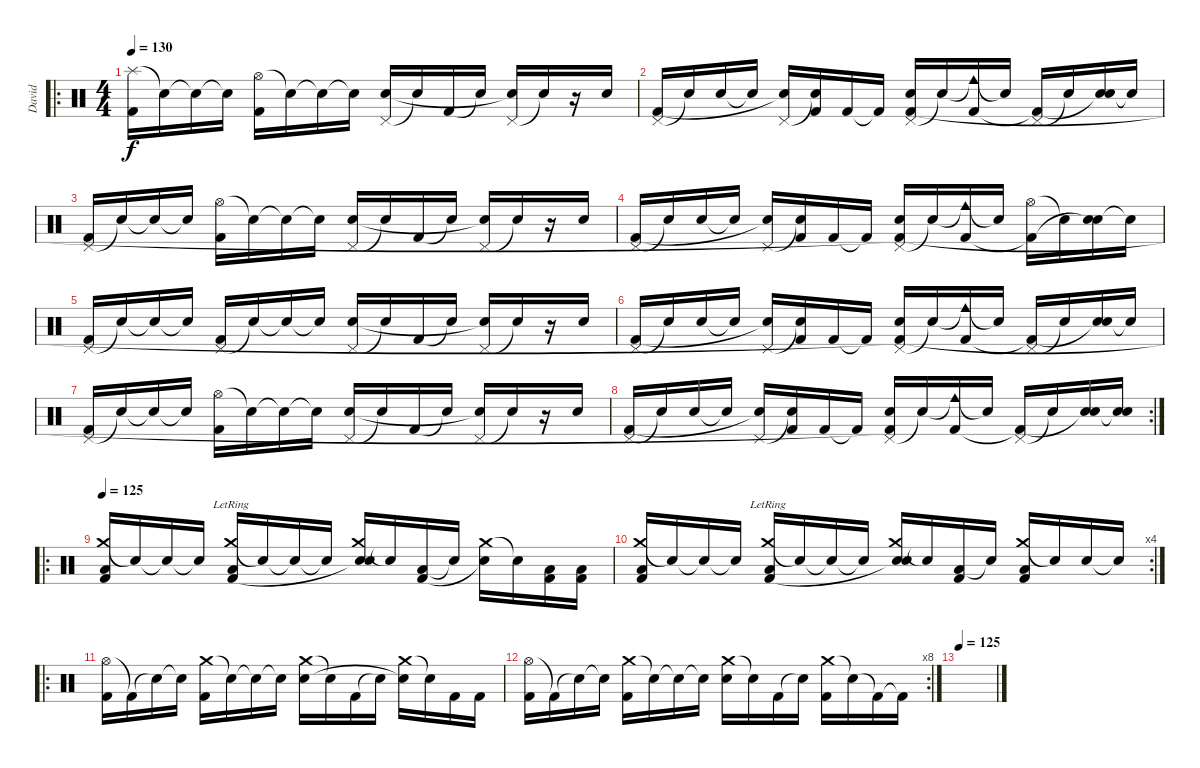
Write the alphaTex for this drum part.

\track ("David" "David") {instrument percussion}
\staff {score}
\articulation defaults
\ro
\ts (4 4)
\tempo 130
\clef neutral
\ks c
("Splash (hit)" "Kick (hit) 2").16{dy f} "Snare (hit)"{t}.16 "Snare (hit)"{t}.16 "Snare (hit)"{t}.16 ("Hi-Hat (open)" "Kick (hit) 2").16 "Snare (hit)"{t}.16 "Snare (hit)"{t}.16 "Snare (hit)"{t}.16 ("Pedal Hi-Hat (hit)" "Snare (hit) 2").16 "Snare (hit)"{t}.16 "Kick (hit) 2".16 "Snare (hit)"{t}.16 ("Pedal Hi-Hat (hit)" "Snare (hit)"{t}).16 "Snare (hit)"{t}.16 r.16 "Snare (hit) 2".16 |
("Pedal Hi-Hat (hit)" "Kick (hit) 2").16 "Snare (hit)"{t}.16 "Snare (hit) 2".16 "Snare (hit)"{t}.16 ("Pedal Hi-Hat (hit)" "Snare (hit)"{t}).16 ("Snare (hit)"{t} "Kick (hit) 2").16 "Kick (hit) 2".16 "Kick (hit) 2"{t}.16 ("Pedal Hi-Hat (hit)" "Snare (hit) 2" "Kick (hit) 2").16 "Snare (hit)"{t}.16 ("Cowbell medium (hit)"{t} "Kick (hit) 2").16 "Snare (hit)"{t}.16 ("Pedal Hi-Hat (hit)" "Kick (hit) 2"{t}).16 "Snare (hit)"{t}.16 ("Snare (hit) 2" "Snare (hit)"{t}).16 "Snare (hit)"{t}.16 |
("Pedal Hi-Hat (hit)" "Kick (hit) 2").16 "Snare (hit)"{t}.16 "Snare (hit)"{t}.16 "Snare (hit)"{t}.16 ("Hi-Hat (open)" "Kick (hit) 2").16 "Snare (hit)"{t}.16 "Snare (hit)"{t}.16 "Snare (hit)"{t}.16 ("Pedal Hi-Hat (hit)" "Snare (hit) 2").16 "Snare (hit)"{t}.16 "Kick (hit) 2".16 "Snare (hit)"{t}.16 ("Pedal Hi-Hat (hit)" "Snare (hit)"{t}).16 "Snare (hit)"{t}.16 r.16 "Snare (hit) 2".16 |
("Pedal Hi-Hat (hit)" "Kick (hit) 2").16 "Snare (hit)"{t}.16 "Snare (hit) 2".16 "Snare (hit)"{t}.16 ("Pedal Hi-Hat (hit)" "Snare (hit)"{t}).16 ("Snare (hit)"{t} "Kick (hit) 2").16 "Kick (hit) 2".16 "Kick (hit) 2"{t}.16 ("Pedal Hi-Hat (hit)" "Snare (hit) 2" "Kick (hit) 2"{t}).16 "Snare (hit)"{t}.16 ("Cowbell medium (hit)"{t} "Kick (hit) 2").16 "Snare (hit)"{t}.16 ("Hi-Hat (open)" "Kick (hit) 2"{t}).16 "Snare (hit)"{t}.16 ("Snare (hit) 2" "Snare (hit)"{t}).16 "Snare (hit)"{t}.16 |
("Pedal Hi-Hat (hit)" "Kick (hit) 2").16 "Snare (hit)"{t}.16 "Snare (hit)"{t}.16 "Snare (hit)"{t}.16 ("Pedal Hi-Hat (hit)" "Kick (hit) 2").16 "Snare (hit)"{t}.16 "Snare (hit)"{t}.16 "Snare (hit)"{t}.16 ("Pedal Hi-Hat (hit)" "Snare (hit) 2").16 "Snare (hit)"{t}.16 "Kick (hit) 2".16 "Snare (hit)"{t}.16 ("Pedal Hi-Hat (hit)" "Snare (hit)"{t}).16 "Snare (hit)"{t}.16 r.16 "Snare (hit) 2".16 |
("Pedal Hi-Hat (hit)" "Kick (hit) 2").16 "Snare (hit)"{t}.16 "Snare (hit) 2".16 "Snare (hit)"{t}.16 ("Pedal Hi-Hat (hit)" "Snare (hit)"{t}).16 ("Snare (hit)"{t} "Kick (hit) 2").16 "Kick (hit) 2".16 "Kick (hit) 2"{t}.16 ("Pedal Hi-Hat (hit)" "Snare (hit) 2" "Kick (hit) 2"{t}).16 "Snare (hit)"{t}.16 ("Cowbell medium (hit)"{t} "Kick (hit) 2").16 "Snare (hit)"{t}.16 ("Pedal Hi-Hat (hit)" "Kick (hit) 2"{t}).16 "Snare (hit)"{t}.16 ("Snare (hit) 2" "Snare (hit)"{t}).16 "Snare (hit)"{t}.16 |
("Pedal Hi-Hat (hit)" "Kick (hit) 2").16 "Snare (hit)"{t}.16 "Snare (hit)"{t}.16 "Snare (hit)"{t}.16 ("Hi-Hat (open)" "Kick (hit) 2").16 "Snare (hit)"{t}.16 "Snare (hit)"{t}.16 "Snare (hit)"{t}.16 ("Pedal Hi-Hat (hit)" "Snare (hit) 2").16 "Snare (hit)"{t}.16 "Kick (hit) 2".16 "Snare (hit)"{t}.16 ("Pedal Hi-Hat (hit)" "Snare (hit)"{t}).16 "Snare (hit)"{t}.16 r.16 "Snare (hit) 2".16 |
\rc 2
("Pedal Hi-Hat (hit)" "Kick (hit) 2").16 "Snare (hit)"{t}.16 "Snare (hit) 2".16 "Snare (hit)"{t}.16 ("Pedal Hi-Hat (hit)" "Snare (hit)"{t}).16 ("Snare (hit)"{t} "Kick (hit) 2").16 "Kick (hit) 2".16 "Kick (hit) 2"{t}.16 ("Pedal Hi-Hat (hit)" "Snare (hit) 2" "Kick (hit) 2"{t}).16 "Snare (hit)"{t}.16 ("Cowbell medium (hit)"{t} "Kick (hit) 2").16 "Snare (hit)"{t}.16 ("Pedal Hi-Hat (hit)" "Kick (hit) 2"{t}).16 "Snare (hit)"{t}.16 ("Snare (hit) 2" "Snare (hit)"{t}).16 ("Snare (hit) 2" "Snare (hit)"{t}).16 |
\ro
\tempo 125
("Crash medium (hit)" "Low Floor Tom (hit)" "Kick (hit) 2").16 "Snare (hit)"{t}.16 "Snare (hit)"{t}.16 "Snare (hit)"{t}.16 ("Crash medium (hit)"{lr} "Low Floor Tom (hit)" "Kick (hit) 2").16 "Snare (hit)"{t}.16 "Snare (hit)"{t}.16 "Snare (hit)"{t}.16 ("Crash medium (hit)" "Electric Snare (hit)" "Snare (hit)"{t}).16 "Snare (hit)"{t}.16 ("Low Floor Tom (hit)" "Kick (hit) 2").16 "Snare (hit)"{t}.16 ("Crash medium (hit)" "Snare (hit)"{t}).16 "Snare (hit)"{t}.16 ("Low Floor Tom (hit)" "Kick (hit) 2").16 ("Low Floor Tom (hit)" "Kick (hit) 2").16 |
\rc 4
("Crash medium (hit)" "Low Floor Tom (hit)" "Kick (hit) 2").16 "Snare (hit)"{t}.16 "Snare (hit)"{t}.16 "Snare (hit)"{t}.16 ("Crash medium (hit)"{lr} "Low Floor Tom (hit)" "Kick (hit) 2").16 "Snare (hit)"{t}.16 "Snare (hit)"{t}.16 "Snare (hit)"{t}.16 ("Crash medium (hit)" "Electric Snare (hit)" "Snare (hit)"{t}).16 "Snare (hit)"{t}.16 ("Low Floor Tom (hit)" "Kick (hit) 2").16 "Snare (hit)"{t}.16 ("Crash medium (hit)" "Low Floor Tom (hit)" "Kick (hit) 2").16 "Snare (hit)"{t}.16 "Electric Snare (hit)".16 "Snare (hit)"{t}.16 |
\ro
("Hi-Hat (open)" "Kick (hit) 2").16 "Kick (hit) 2"{t}.16 "Snare (hit)"{t}.16 "Snare (hit)"{t}.16 ("Crash medium (hit)" "Kick (hit) 2").16 "Snare (hit)"{t}.16 "Snare (hit)"{t}.16 "Snare (hit)"{t}.16 ("Crash medium (hit)" "Electric Snare (hit)").16 "Snare (hit)"{t}.16 "Kick (hit) 2".16 "Snare (hit)"{t}.16 ("Crash medium (hit)" "Snare (hit)"{t}).16 "Snare (hit)"{t}.16 "Kick (hit) 2".16 "Kick (hit) 2".16 |
\rc 8
("Hi-Hat (open)" "Kick (hit) 2").16 "Kick (hit) 2"{t}.16 "Snare (hit)"{t}.16 "Snare (hit)"{t}.16 ("Crash medium (hit)" "Kick (hit) 2").16 "Snare (hit)"{t}.16 "Snare (hit)"{t}.16 "Snare (hit)"{t}.16 ("Crash medium (hit)" "Electric Snare (hit)").16 "Snare (hit)"{t}.16 "Kick (hit) 2".16 "Snare (hit)"{t}.16 ("Crash medium (hit)" "Kick (hit) 2").16 "Snare (hit)"{t}.16 "Kick (hit) 2"{t}.16 "Kick (hit) 2"{t}.16 |
\tempo 125
